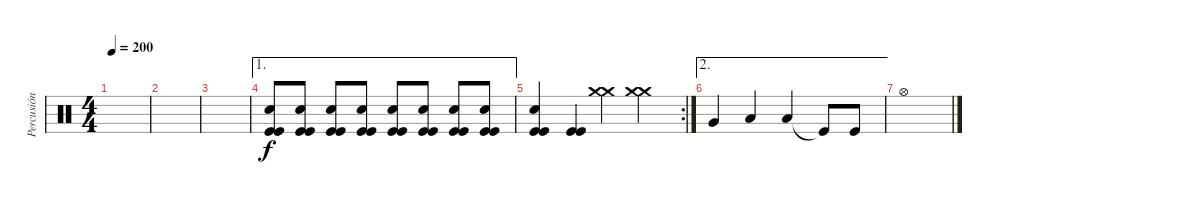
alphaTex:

\track ("Percusión" "Percusión") {instrument percussion}
\staff {score}
\articulation defaults
\ts (4 4)
\tempo 200
\clef neutral
\ks c
|
|
|
\ae 1
("Kick (hit)" "Kick (hit)" "Electric Snare (hit)").8 ("Kick (hit)" "Kick (hit)" "Electric Snare (hit)").8 ("Kick (hit)" "Kick (hit)" "Electric Snare (hit)").8 ("Kick (hit)" "Kick (hit)" "Electric Snare (hit)").8 ("Kick (hit)" "Kick (hit)" "Electric Snare (hit)").8 ("Kick (hit)" "Kick (hit)" "Electric Snare (hit)").8 ("Kick (hit)" "Kick (hit)" "Electric Snare (hit)").8 ("Kick (hit)" "Kick (hit)" "Electric Snare (hit)").8 |
\rc 2
("Kick (hit)" "Kick (hit)" "Electric Snare (hit)").4 ("Kick (hit)" "Kick (hit)").4 ("Crash medium (hit)" "Crash medium (hit)").4 ("Crash medium (hit)" "Crash medium (hit)").4 |
\ae 2 "Very Low Tom (hit)".4 "Low Tom (hit)".4 "Low Floor Tom (hit)".4 "Kick (hit)"{t}.8 "Kick (hit)".8
|
"Hi-Hat (open)".1
